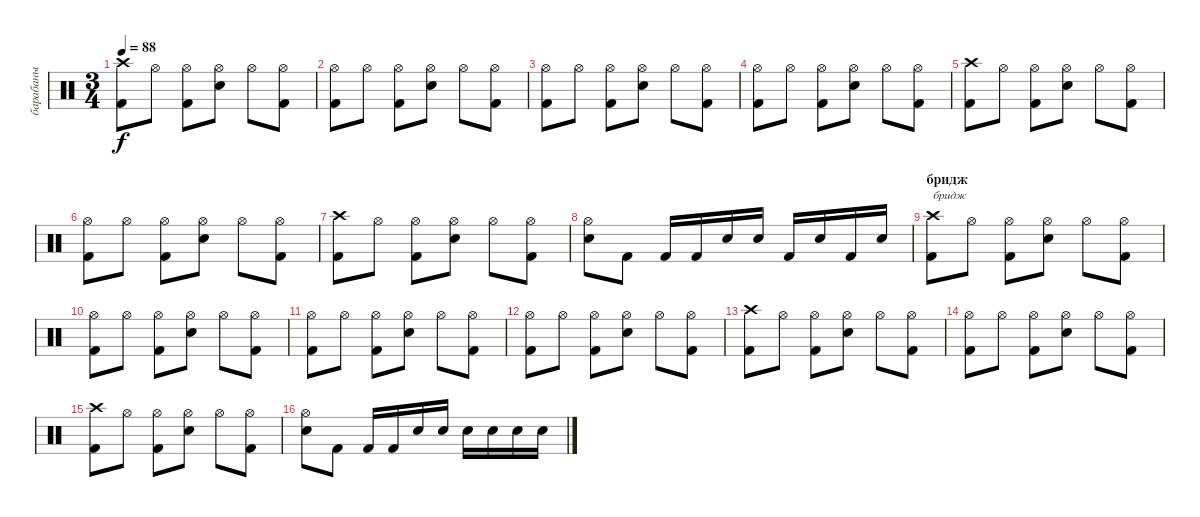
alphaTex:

\track ("барабаны" "барабаны") {instrument percussion}
\staff {score}
\articulation defaults
\ts (3 4)
\tempo 88
\clef neutral
\ks c
("Crash high (hit)" "Kick (hit) 2").8{dy f} "Hi-Hat (open)".8 ("Hi-Hat (open)" "Kick (hit) 2").8 ("Hi-Hat (open)" "Snare (hit) 2").8 "Hi-Hat (open)".8 ("Hi-Hat (open)" "Kick (hit) 2").8 |
("Hi-Hat (open)" "Kick (hit) 2").8 "Hi-Hat (open)".8 ("Hi-Hat (open)" "Kick (hit) 2").8 ("Hi-Hat (open)" "Snare (hit) 2").8 "Hi-Hat (open)".8 ("Hi-Hat (open)" "Kick (hit) 2").8 |
("Hi-Hat (open)" "Kick (hit) 2").8 "Hi-Hat (open)".8 ("Hi-Hat (open)" "Kick (hit) 2").8 ("Hi-Hat (open)" "Snare (hit) 2").8 "Hi-Hat (open)".8 ("Hi-Hat (open)" "Kick (hit) 2").8 |
("Hi-Hat (open)" "Kick (hit) 2").8 "Hi-Hat (open)".8 ("Hi-Hat (open)" "Kick (hit) 2").8 ("Hi-Hat (open)" "Snare (hit) 2").8 "Hi-Hat (open)".8 ("Hi-Hat (open)" "Kick (hit) 2").8 |
("Crash high (hit)" "Kick (hit) 2").8 "Hi-Hat (open)".8 ("Hi-Hat (open)" "Kick (hit) 2").8 ("Hi-Hat (open)" "Snare (hit) 2").8 "Hi-Hat (open)".8 ("Hi-Hat (open)" "Kick (hit) 2").8 |
("Hi-Hat (open)" "Kick (hit) 2").8 "Hi-Hat (open)".8 ("Hi-Hat (open)" "Kick (hit) 2").8 ("Hi-Hat (open)" "Snare (hit) 2").8 "Hi-Hat (open)".8 ("Hi-Hat (open)" "Kick (hit) 2").8 |
("Crash high (hit)" "Kick (hit) 2").8 "Hi-Hat (open)".8 ("Hi-Hat (open)" "Kick (hit) 2").8 ("Hi-Hat (open)" "Snare (hit) 2").8 "Hi-Hat (open)".8 ("Hi-Hat (open)" "Kick (hit) 2").8 |
("Hi-Hat (open)" "Snare (hit) 2").8 "Kick (hit) 2".8 "Kick (hit) 2".16 "Kick (hit) 2".16 "Snare (hit) 2".16 "Snare (hit) 2".16 "Kick (hit) 2".16 "Snare (hit) 2".16 "Kick (hit) 2".16 "Snare (hit) 2".16 |
\section ("" "бридж")
("Crash high (hit)" "Kick (hit) 2").8{txt "бридж"} "Hi-Hat (open)".8 ("Hi-Hat (open)" "Kick (hit) 2").8 ("Hi-Hat (open)" "Snare (hit) 2").8 "Hi-Hat (open)".8 ("Hi-Hat (open)" "Kick (hit) 2").8 |
("Hi-Hat (open)" "Kick (hit) 2").8 "Hi-Hat (open)".8 ("Hi-Hat (open)" "Kick (hit) 2").8 ("Hi-Hat (open)" "Snare (hit) 2").8 "Hi-Hat (open)".8 ("Hi-Hat (open)" "Kick (hit) 2").8 |
("Hi-Hat (open)" "Kick (hit) 2").8 "Hi-Hat (open)".8 ("Hi-Hat (open)" "Kick (hit) 2").8 ("Hi-Hat (open)" "Snare (hit) 2").8 "Hi-Hat (open)".8 ("Hi-Hat (open)" "Kick (hit) 2").8 |
("Hi-Hat (open)" "Kick (hit) 2").8 "Hi-Hat (open)".8 ("Hi-Hat (open)" "Kick (hit) 2").8 ("Hi-Hat (open)" "Snare (hit) 2").8 "Hi-Hat (open)".8 ("Hi-Hat (open)" "Kick (hit) 2").8 |
("Crash high (hit)" "Kick (hit) 2").8 "Hi-Hat (open)".8 ("Hi-Hat (open)" "Kick (hit) 2").8 ("Hi-Hat (open)" "Snare (hit) 2").8 "Hi-Hat (open)".8 ("Hi-Hat (open)" "Kick (hit) 2").8 |
("Hi-Hat (open)" "Kick (hit) 2").8 "Hi-Hat (open)".8 ("Hi-Hat (open)" "Kick (hit) 2").8 ("Hi-Hat (open)" "Snare (hit) 2").8 "Hi-Hat (open)".8 ("Hi-Hat (open)" "Kick (hit) 2").8 |
("Crash high (hit)" "Kick (hit) 2").8 "Hi-Hat (open)".8 ("Hi-Hat (open)" "Kick (hit) 2").8 ("Hi-Hat (open)" "Snare (hit) 2").8 "Hi-Hat (open)".8 ("Hi-Hat (open)" "Kick (hit) 2").8 |
("Hi-Hat (open)" "Snare (hit) 2").8 "Kick (hit) 2".8 "Kick (hit) 2".16 "Kick (hit) 2".16 "Snare (hit) 2".16 "Snare (hit) 2".16 "Snare (hit) 2".16 "Snare (hit) 2".16 "Snare (hit) 2".16 "Snare (hit) 2".16
